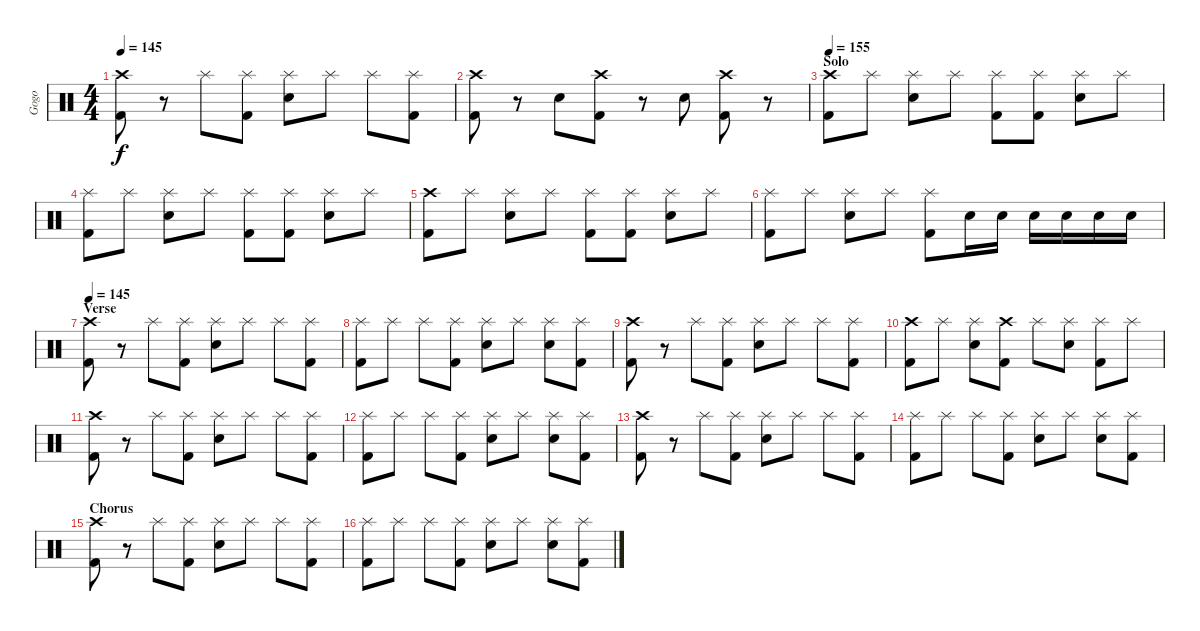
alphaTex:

\track ("Gogo" "Gogo") {instrument percussion}
\staff {score}
\articulation defaults
\ts (4 4)
\tempo 145
\clef neutral
\ks c
("Crash high (hit)" "Kick (hit) 2").8{dy f} r.8 "Splash (hit)".8 ("Splash (hit)" "Kick (hit) 2").8 ("Splash (hit)" "Electric Snare (hit)").8 "Splash (hit)".8 "Splash (hit)".8 ("Splash (hit)" "Kick (hit) 2").8 |
("Crash high (hit)" "Kick (hit) 2").8 r.8 "Electric Snare (hit)".8 ("Crash high (hit)" "Kick (hit) 2").8 r.8 "Electric Snare (hit)".8 ("Crash high (hit)" "Kick (hit) 2").8 r.8 |
\section ("" "Solo")
\tempo 155
("Crash high (hit)" "Kick (hit) 2").8 "Splash (hit)".8 ("Splash (hit)" "Electric Snare (hit)").8 "Splash (hit)".8 ("Splash (hit)" "Kick (hit) 2").8 ("Splash (hit)" "Kick (hit) 2").8 ("Splash (hit)" "Electric Snare (hit)").8 "Splash (hit)".8 |
("Splash (hit)" "Kick (hit) 2").8 "Splash (hit)".8 ("Splash (hit)" "Electric Snare (hit)").8 "Splash (hit)".8 ("Splash (hit)" "Kick (hit) 2").8 ("Splash (hit)" "Kick (hit) 2").8 ("Splash (hit)" "Electric Snare (hit)").8 "Splash (hit)".8 |
("Crash high (hit)" "Kick (hit) 2").8 "Splash (hit)".8 ("Splash (hit)" "Electric Snare (hit)").8 "Splash (hit)".8 ("Splash (hit)" "Kick (hit) 2").8 ("Splash (hit)" "Kick (hit) 2").8 ("Splash (hit)" "Electric Snare (hit)").8 "Splash (hit)".8 |
("Splash (hit)" "Kick (hit) 2").8 "Splash (hit)".8 ("Splash (hit)" "Electric Snare (hit)").8 "Splash (hit)".8 ("Splash (hit)" "Kick (hit) 2").8 "Electric Snare (hit)".16 "Electric Snare (hit)".16 "Electric Snare (hit)".16 "Electric Snare (hit)".16 "Electric Snare (hit)".16 "Electric Snare (hit)".16 |
\section ("" "Verse")
\tempo 145
("Crash high (hit)" "Kick (hit) 2").8 r.8 "Splash (hit)".8 ("Splash (hit)" "Kick (hit) 2").8 ("Splash (hit)" "Electric Snare (hit)").8 "Splash (hit)".8 "Splash (hit)".8 ("Splash (hit)" "Kick (hit) 2").8 |
("Splash (hit)" "Kick (hit) 2").8 "Splash (hit)".8 "Splash (hit)".8 ("Splash (hit)" "Kick (hit) 2").8 ("Splash (hit)" "Electric Snare (hit)").8 "Splash (hit)".8 ("Splash (hit)" "Electric Snare (hit)").8 ("Splash (hit)" "Kick (hit) 2").8 |
("Crash high (hit)" "Kick (hit) 2").8 r.8 "Splash (hit)".8 ("Splash (hit)" "Kick (hit) 2").8 ("Splash (hit)" "Electric Snare (hit)").8 "Splash (hit)".8 "Splash (hit)".8 ("Splash (hit)" "Kick (hit) 2").8 |
("Crash high (hit)" "Kick (hit) 2").8 "Splash (hit)".8 ("Splash (hit)" "Electric Snare (hit)").8 ("Crash high (hit)" "Kick (hit) 2").8 "Splash (hit)".8 ("Splash (hit)" "Electric Snare (hit)").8 ("Splash (hit)" "Kick (hit) 2").8 "Splash (hit)".8 |
("Crash high (hit)" "Kick (hit) 2").8 r.8 "Splash (hit)".8 ("Splash (hit)" "Kick (hit) 2").8 ("Splash (hit)" "Electric Snare (hit)").8 "Splash (hit)".8 "Splash (hit)".8 ("Splash (hit)" "Kick (hit) 2").8 |
("Splash (hit)" "Kick (hit) 2").8 "Splash (hit)".8 "Splash (hit)".8 ("Splash (hit)" "Kick (hit) 2").8 ("Splash (hit)" "Electric Snare (hit)").8 "Splash (hit)".8 ("Splash (hit)" "Electric Snare (hit)").8 ("Splash (hit)" "Kick (hit) 2").8 |
("Crash high (hit)" "Kick (hit) 2").8 r.8 "Splash (hit)".8 ("Splash (hit)" "Kick (hit) 2").8 ("Splash (hit)" "Electric Snare (hit)").8 "Splash (hit)".8 "Splash (hit)".8 ("Splash (hit)" "Kick (hit) 2").8 |
("Splash (hit)" "Kick (hit) 2").8 "Splash (hit)".8 "Splash (hit)".8 ("Splash (hit)" "Kick (hit) 2").8 ("Splash (hit)" "Electric Snare (hit)").8 "Splash (hit)".8 ("Splash (hit)" "Electric Snare (hit)").8 ("Splash (hit)" "Kick (hit) 2").8 |
\section ("" "Chorus")
("Crash high (hit)" "Kick (hit) 2").8 r.8 "Splash (hit)".8 ("Splash (hit)" "Kick (hit) 2").8 ("Splash (hit)" "Electric Snare (hit)").8 "Splash (hit)".8 "Splash (hit)".8 ("Splash (hit)" "Kick (hit) 2").8 |
("Splash (hit)" "Kick (hit) 2").8 "Splash (hit)".8 "Splash (hit)".8 ("Splash (hit)" "Kick (hit) 2").8 ("Splash (hit)" "Electric Snare (hit)").8 "Splash (hit)".8 ("Splash (hit)" "Electric Snare (hit)").8 ("Splash (hit)" "Kick (hit) 2").8
